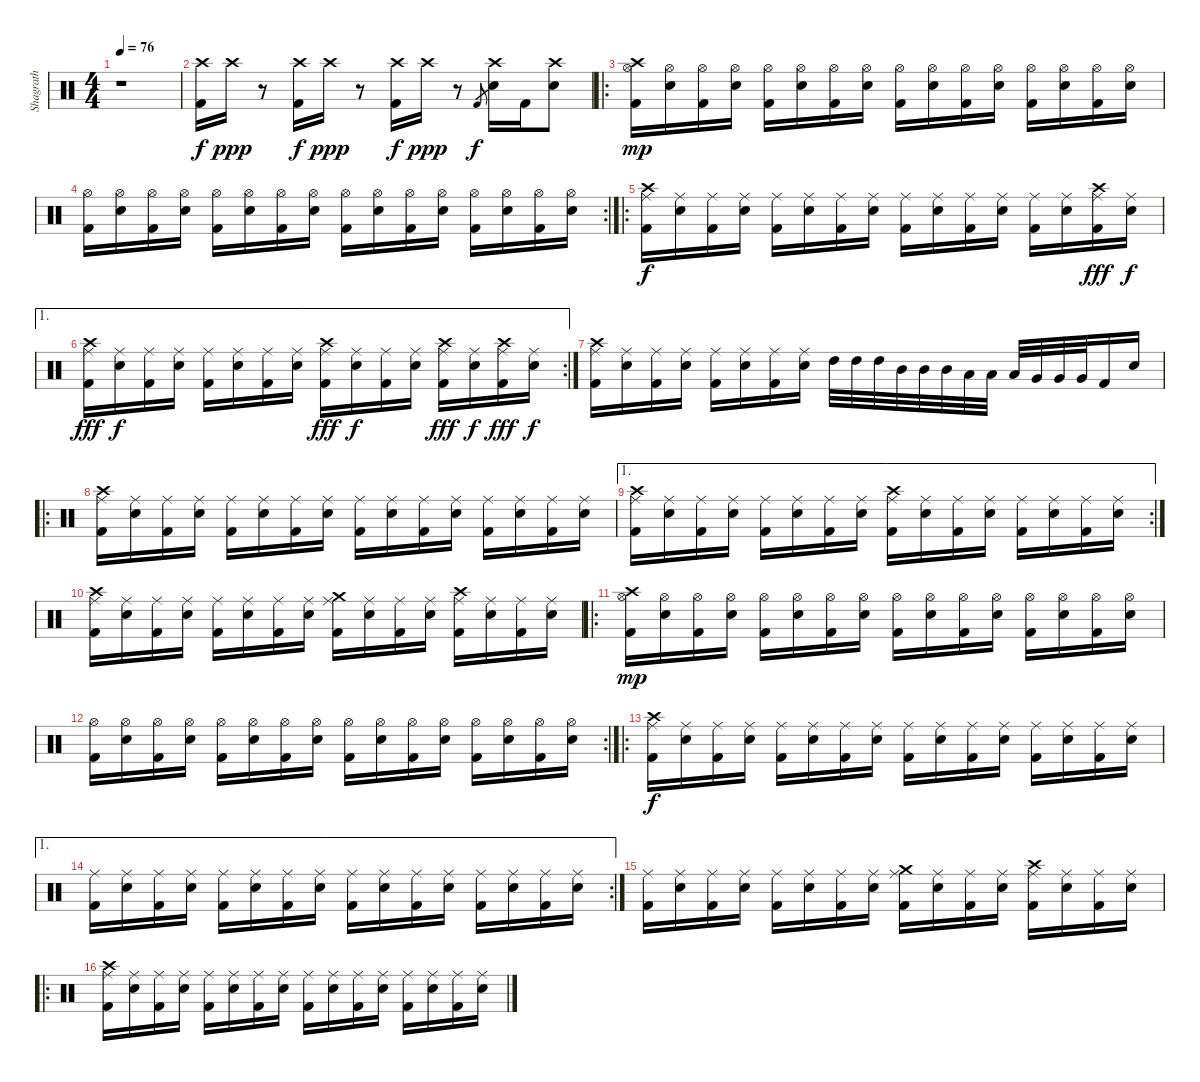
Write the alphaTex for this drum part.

\track ("Shagrath" "Shagrath") {instrument percussion}
\staff {score}
\articulation defaults
\ts (4 4)
\tempo 76
\clef neutral
\ks c
r.1{dy f} |
("Crash high (hit)" "Kick (hit) 2").16 "Crash high (hit)".16{dy ppp} r.8 ("Crash high (hit)" "Kick (hit) 2").16{dy f} "Crash high (hit)".16{dy ppp} r.8 ("Crash high (hit)" "Kick (hit) 2").16{dy f} "Crash high (hit)".16{dy ppp} r.8 "Kick (hit) 2".8{gr dy f} ("Crash high (hit)" "Snare (hit) 2").16 "Kick (hit) 2".16 ("Crash high (hit)" "Snare (hit) 2").8 |
\ro
("Crash high (hit)" "Hi-Hat (open)" "Kick (hit) 2").16{dy mp} ("Hi-Hat (open)" "Snare (hit) 2").16 ("Hi-Hat (open)" "Kick (hit) 2").16 ("Hi-Hat (open)" "Snare (hit) 2").16 ("Hi-Hat (open)" "Kick (hit) 2").16 ("Hi-Hat (open)" "Snare (hit) 2").16 ("Hi-Hat (open)" "Kick (hit) 2").16 ("Hi-Hat (open)" "Snare (hit) 2").16 ("Hi-Hat (open)" "Kick (hit) 2").16 ("Hi-Hat (open)" "Snare (hit) 2").16 ("Hi-Hat (open)" "Kick (hit) 2").16 ("Hi-Hat (open)" "Snare (hit) 2").16 ("Hi-Hat (open)" "Kick (hit) 2").16 ("Hi-Hat (open)" "Snare (hit) 2").16 ("Hi-Hat (open)" "Kick (hit) 2").16 ("Hi-Hat (open)" "Snare (hit) 2").16 |
\rc 2
("Hi-Hat (open)" "Kick (hit) 2").16 ("Hi-Hat (open)" "Snare (hit) 2").16 ("Hi-Hat (open)" "Kick (hit) 2").16 ("Hi-Hat (open)" "Snare (hit) 2").16 ("Hi-Hat (open)" "Kick (hit) 2").16 ("Hi-Hat (open)" "Snare (hit) 2").16 ("Hi-Hat (open)" "Kick (hit) 2").16 ("Hi-Hat (open)" "Snare (hit) 2").16 ("Hi-Hat (open)" "Kick (hit) 2").16 ("Hi-Hat (open)" "Snare (hit) 2").16 ("Hi-Hat (open)" "Kick (hit) 2").16 ("Hi-Hat (open)" "Snare (hit) 2").16 ("Hi-Hat (open)" "Kick (hit) 2").16 ("Hi-Hat (open)" "Snare (hit) 2").16 ("Hi-Hat (open)" "Kick (hit) 2").16 ("Hi-Hat (open)" "Snare (hit) 2").16 |
\ro
("Ride (middle)" "Kick (hit) 2" "Crash high (hit)").16{dy f} ("Ride (middle)" "Snare (hit) 2").16 ("Ride (middle)" "Kick (hit) 2").16 ("Ride (middle)" "Snare (hit) 2").16 ("Ride (middle)" "Kick (hit) 2").16 ("Ride (middle)" "Snare (hit) 2").16 ("Ride (middle)" "Kick (hit) 2").16 ("Ride (middle)" "Snare (hit) 2").16 ("Ride (middle)" "Kick (hit) 2").16 ("Ride (middle)" "Snare (hit) 2").16 ("Ride (middle)" "Kick (hit) 2").16 ("Ride (middle)" "Snare (hit) 2").16 ("Ride (middle)" "Kick (hit) 2").16 ("Ride (middle)" "Snare (hit) 2").16 ("Ride (middle)" "Kick (hit) 2" "Crash high (hit)").16{dy fff} ("Ride (middle)" "Snare (hit) 2").16{dy f} |
\ae 1
\rc 2
("Ride (middle)" "Kick (hit) 2" "Crash high (hit)").16{dy fff} ("Ride (middle)" "Snare (hit) 2").16{dy f} ("Ride (middle)" "Kick (hit) 2").16 ("Ride (middle)" "Snare (hit) 2").16 ("Ride (middle)" "Kick (hit) 2").16 ("Ride (middle)" "Snare (hit) 2").16 ("Ride (middle)" "Kick (hit) 2").16 ("Ride (middle)" "Snare (hit) 2").16 ("Ride (middle)" "Kick (hit) 2" "Crash high (hit)").16{dy fff} ("Ride (middle)" "Snare (hit) 2").16{dy f} ("Ride (middle)" "Kick (hit) 2").16 ("Ride (middle)" "Snare (hit) 2").16 ("Ride (middle)" "Kick (hit) 2" "Crash high (hit)").16{dy fff} ("Ride (middle)" "Snare (hit) 2").16{dy f} ("Ride (middle)" "Kick (hit) 2" "Crash high (hit)").16{dy fff} ("Ride (middle)" "Snare (hit) 2").16{dy f} |
("Ride (middle)" "Kick (hit) 2" "Crash high (hit)").16 ("Ride (middle)" "Snare (hit) 2").16 ("Ride (middle)" "Kick (hit) 2").16 ("Ride (middle)" "Snare (hit) 2").16 ("Ride (middle)" "Kick (hit) 2").16 ("Ride (middle)" "Snare (hit) 2").16 ("Ride (middle)" "Kick (hit) 2").16 ("Ride (middle)" "Snare (hit) 2").16 "High Tom (hit)".32 "High Tom (hit)".32 "High Tom (hit)".32 "Mid Tom (hit)".32 "Mid Tom (hit)".32 "Mid Tom (hit)".32 "Low Tom (hit)".32 "Low Tom (hit)".32 "Low Tom (hit)".32 "Very Low Tom (hit)".32 "Very Low Tom (hit)".32 "Very Low Tom (hit)".32 "Kick (hit) 2".16 "Snare (hit) 2".16 |
\ro
("Ride (middle)" "Kick (hit) 2" "Crash high (hit)").16 ("Ride (middle)" "Snare (hit) 2").16 ("Ride (middle)" "Kick (hit) 2").16 ("Ride (middle)" "Snare (hit) 2").16 ("Ride (middle)" "Kick (hit) 2").16 ("Ride (middle)" "Snare (hit) 2").16 ("Ride (middle)" "Kick (hit) 2").16 ("Ride (middle)" "Snare (hit) 2").16 ("Ride (middle)" "Kick (hit) 2").16 ("Ride (middle)" "Snare (hit) 2").16 ("Ride (middle)" "Kick (hit) 2").16 ("Ride (middle)" "Snare (hit) 2").16 ("Ride (middle)" "Kick (hit) 2").16 ("Ride (middle)" "Snare (hit) 2").16 ("Ride (middle)" "Kick (hit) 2").16 ("Ride (middle)" "Snare (hit) 2").16 |
\ae 1
\rc 2
("Ride (middle)" "Kick (hit) 2" "Crash high (hit)").16 ("Ride (middle)" "Snare (hit) 2").16 ("Ride (middle)" "Kick (hit) 2").16 ("Ride (middle)" "Snare (hit) 2").16 ("Ride (middle)" "Kick (hit) 2").16 ("Ride (middle)" "Snare (hit) 2").16 ("Ride (middle)" "Kick (hit) 2").16 ("Ride (middle)" "Snare (hit) 2").16 ("Ride (middle)" "Kick (hit) 2" "Crash high (hit)").16 ("Ride (middle)" "Snare (hit) 2").16 ("Ride (middle)" "Kick (hit) 2").16 ("Ride (middle)" "Snare (hit) 2").16 ("Ride (middle)" "Kick (hit) 2").16 ("Ride (middle)" "Snare (hit) 2").16 ("Ride (middle)" "Kick (hit) 2").16 ("Ride (middle)" "Snare (hit) 2").16 |
("Ride (middle)" "Kick (hit) 2" "Crash high (hit)").16 ("Ride (middle)" "Snare (hit) 2").16 ("Ride (middle)" "Kick (hit) 2").16 ("Ride (middle)" "Snare (hit) 2").16 ("Ride (middle)" "Kick (hit) 2").16 ("Ride (middle)" "Snare (hit) 2").16 ("Ride (middle)" "Kick (hit) 2").16 ("Ride (middle)" "Snare (hit) 2").16 ("Ride (middle)" "Kick (hit) 2" "Crash medium (hit)").16 ("Ride (middle)" "Snare (hit) 2").16 ("Ride (middle)" "Kick (hit) 2").16 ("Ride (middle)" "Snare (hit) 2").16 ("Ride (middle)" "Kick (hit) 2" "Crash high (hit)").16 ("Ride (middle)" "Snare (hit) 2").16 ("Ride (middle)" "Kick (hit) 2").16 ("Ride (middle)" "Snare (hit) 2").16 |
\ro
("Crash high (hit)" "Hi-Hat (open)" "Kick (hit) 2").16{dy mp} ("Hi-Hat (open)" "Snare (hit) 2").16 ("Hi-Hat (open)" "Kick (hit) 2").16 ("Hi-Hat (open)" "Snare (hit) 2").16 ("Hi-Hat (open)" "Kick (hit) 2").16 ("Hi-Hat (open)" "Snare (hit) 2").16 ("Hi-Hat (open)" "Kick (hit) 2").16 ("Hi-Hat (open)" "Snare (hit) 2").16 ("Hi-Hat (open)" "Kick (hit) 2").16 ("Hi-Hat (open)" "Snare (hit) 2").16 ("Hi-Hat (open)" "Kick (hit) 2").16 ("Hi-Hat (open)" "Snare (hit) 2").16 ("Hi-Hat (open)" "Kick (hit) 2").16 ("Hi-Hat (open)" "Snare (hit) 2").16 ("Hi-Hat (open)" "Kick (hit) 2").16 ("Hi-Hat (open)" "Snare (hit) 2").16 |
\rc 2
("Hi-Hat (open)" "Kick (hit) 2").16 ("Hi-Hat (open)" "Snare (hit) 2").16 ("Hi-Hat (open)" "Kick (hit) 2").16 ("Hi-Hat (open)" "Snare (hit) 2").16 ("Hi-Hat (open)" "Kick (hit) 2").16 ("Hi-Hat (open)" "Snare (hit) 2").16 ("Hi-Hat (open)" "Kick (hit) 2").16 ("Hi-Hat (open)" "Snare (hit) 2").16 ("Hi-Hat (open)" "Kick (hit) 2").16 ("Hi-Hat (open)" "Snare (hit) 2").16 ("Hi-Hat (open)" "Kick (hit) 2").16 ("Hi-Hat (open)" "Snare (hit) 2").16 ("Hi-Hat (open)" "Kick (hit) 2").16 ("Hi-Hat (open)" "Snare (hit) 2").16 ("Hi-Hat (open)" "Kick (hit) 2").16 ("Hi-Hat (open)" "Snare (hit) 2").16 |
\ro
("Ride (middle)" "Kick (hit) 2" "Crash high (hit)").16{dy f} ("Ride (middle)" "Snare (hit) 2").16 ("Ride (middle)" "Kick (hit) 2").16 ("Ride (middle)" "Snare (hit) 2").16 ("Ride (middle)" "Kick (hit) 2").16 ("Ride (middle)" "Snare (hit) 2").16 ("Ride (middle)" "Kick (hit) 2").16 ("Ride (middle)" "Snare (hit) 2").16 ("Ride (middle)" "Kick (hit) 2").16 ("Ride (middle)" "Snare (hit) 2").16 ("Ride (middle)" "Kick (hit) 2").16 ("Ride (middle)" "Snare (hit) 2").16 ("Ride (middle)" "Kick (hit) 2").16 ("Ride (middle)" "Snare (hit) 2").16 ("Ride (middle)" "Kick (hit) 2").16 ("Ride (middle)" "Snare (hit) 2").16 |
\ae 1
\rc 2
("Ride (middle)" "Kick (hit) 2").16 ("Ride (middle)" "Snare (hit) 2").16 ("Ride (middle)" "Kick (hit) 2").16 ("Ride (middle)" "Snare (hit) 2").16 ("Ride (middle)" "Kick (hit) 2").16 ("Ride (middle)" "Snare (hit) 2").16 ("Ride (middle)" "Kick (hit) 2").16 ("Ride (middle)" "Snare (hit) 2").16 ("Ride (middle)" "Kick (hit) 2").16 ("Ride (middle)" "Snare (hit) 2").16 ("Ride (middle)" "Kick (hit) 2").16 ("Ride (middle)" "Snare (hit) 2").16 ("Ride (middle)" "Kick (hit) 2").16 ("Ride (middle)" "Snare (hit) 2").16 ("Ride (middle)" "Kick (hit) 2").16 ("Ride (middle)" "Snare (hit) 2").16 |
("Ride (middle)" "Kick (hit) 2").16 ("Ride (middle)" "Snare (hit) 2").16 ("Ride (middle)" "Kick (hit) 2").16 ("Ride (middle)" "Snare (hit) 2").16 ("Ride (middle)" "Kick (hit) 2").16 ("Ride (middle)" "Snare (hit) 2").16 ("Ride (middle)" "Kick (hit) 2").16 ("Ride (middle)" "Snare (hit) 2").16 ("Ride (middle)" "Kick (hit) 2" "Crash medium (hit)").16 ("Ride (middle)" "Snare (hit) 2").16 ("Ride (middle)" "Kick (hit) 2").16 ("Ride (middle)" "Snare (hit) 2").16 ("Ride (middle)" "Kick (hit) 2" "Crash high (hit)").16 ("Ride (middle)" "Snare (hit) 2").16 ("Ride (middle)" "Kick (hit) 2").16 ("Ride (middle)" "Snare (hit) 2").16 |
\ro
("Ride (middle)" "Kick (hit) 2" "Crash high (hit)").16 ("Ride (middle)" "Snare (hit) 2").16 ("Ride (middle)" "Kick (hit) 2").16 ("Ride (middle)" "Snare (hit) 2").16 ("Ride (middle)" "Kick (hit) 2").16 ("Ride (middle)" "Snare (hit) 2").16 ("Ride (middle)" "Kick (hit) 2").16 ("Ride (middle)" "Snare (hit) 2").16 ("Ride (middle)" "Kick (hit) 2").16 ("Ride (middle)" "Snare (hit) 2").16 ("Ride (middle)" "Kick (hit) 2").16 ("Ride (middle)" "Snare (hit) 2").16 ("Ride (middle)" "Kick (hit) 2").16 ("Ride (middle)" "Snare (hit) 2").16 ("Ride (middle)" "Kick (hit) 2").16 ("Ride (middle)" "Snare (hit) 2").16
